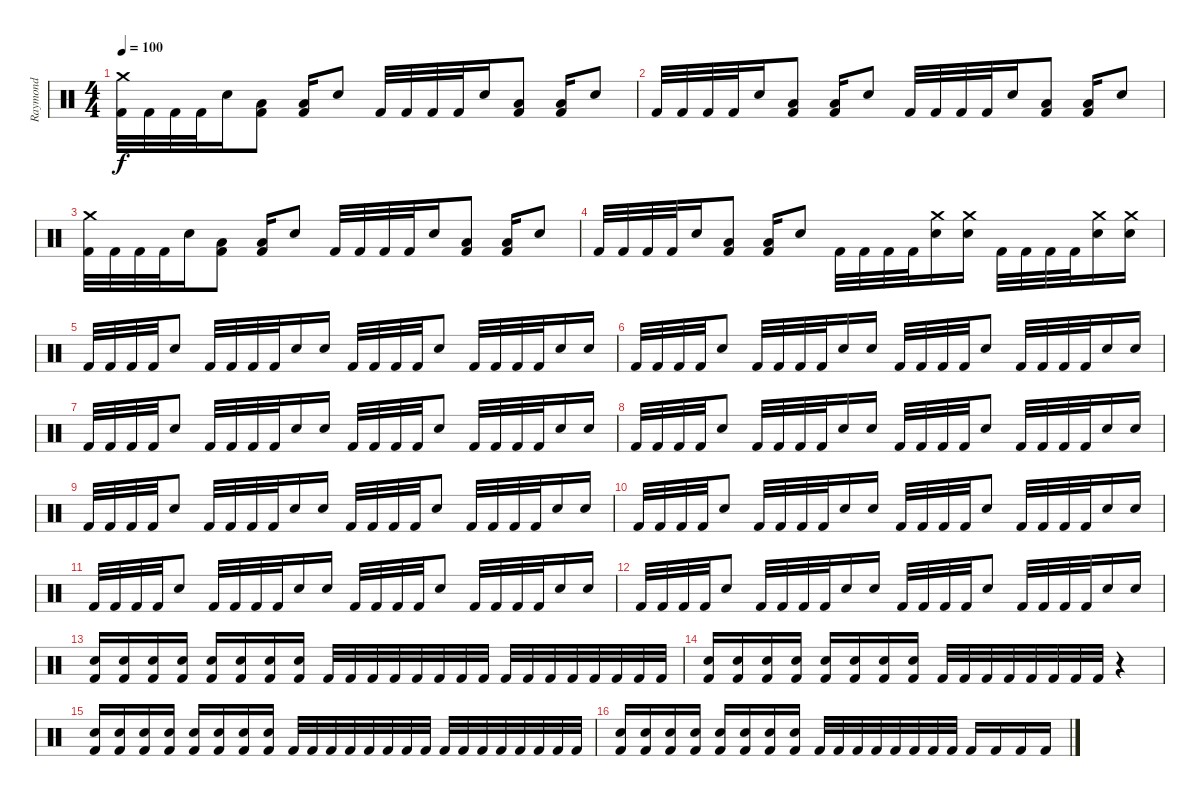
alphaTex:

\track ("Raymond" "Raymond") {instrument percussion}
\staff {score}
\articulation defaults
\ts (4 4)
\tempo 100
\clef neutral
\ks c
("Crash medium (hit)" "Kick (hit) 2").32{dy f} "Kick (hit) 2".32 "Kick (hit) 2".32 "Kick (hit) 2".32 "Snare (hit) 2".16 ("Low Floor Tom (hit)" "Kick (hit) 2").8 ("Low Floor Tom (hit)" "Kick (hit) 2").16 "Snare (hit) 2".8 "Kick (hit) 2".32 "Kick (hit) 2".32 "Kick (hit) 2".32 "Kick (hit) 2".32 "Snare (hit) 2".16 ("Low Floor Tom (hit)" "Kick (hit) 2").8 ("Low Floor Tom (hit)" "Kick (hit) 2").16 "Snare (hit) 2".8 |
"Kick (hit) 2".32 "Kick (hit) 2".32 "Kick (hit) 2".32 "Kick (hit) 2".32 "Snare (hit) 2".16 ("Low Floor Tom (hit)" "Kick (hit) 2").8 ("Low Floor Tom (hit)" "Kick (hit) 2").16 "Snare (hit) 2".8 "Kick (hit) 2".32 "Kick (hit) 2".32 "Kick (hit) 2".32 "Kick (hit) 2".32 "Snare (hit) 2".16 ("Low Floor Tom (hit)" "Kick (hit) 2").8 ("Low Floor Tom (hit)" "Kick (hit) 2").16 "Snare (hit) 2".8 |
("Crash medium (hit)" "Kick (hit) 2").32 "Kick (hit) 2".32 "Kick (hit) 2".32 "Kick (hit) 2".32 "Snare (hit) 2".16 ("Low Floor Tom (hit)" "Kick (hit) 2").8 ("Low Floor Tom (hit)" "Kick (hit) 2").16 "Snare (hit) 2".8 "Kick (hit) 2".32 "Kick (hit) 2".32 "Kick (hit) 2".32 "Kick (hit) 2".32 "Snare (hit) 2".16 ("Low Floor Tom (hit)" "Kick (hit) 2").8 ("Low Floor Tom (hit)" "Kick (hit) 2").16 "Snare (hit) 2".8 |
"Kick (hit) 2".32 "Kick (hit) 2".32 "Kick (hit) 2".32 "Kick (hit) 2".32 "Snare (hit) 2".16 ("Low Floor Tom (hit)" "Kick (hit) 2").8 ("Low Floor Tom (hit)" "Kick (hit) 2").16 "Snare (hit) 2".8 "Kick (hit) 2".32 "Kick (hit) 2".32 "Kick (hit) 2".32 "Kick (hit) 2".32 ("Crash medium (hit)" "Snare (hit) 2").16 ("Crash medium (hit)" "Snare (hit) 2").16 "Kick (hit) 2".32 "Kick (hit) 2".32 "Kick (hit) 2".32 "Kick (hit) 2".32 ("Crash medium (hit)" "Snare (hit) 2").16 ("Crash medium (hit)" "Snare (hit) 2").16 |
"Kick (hit) 2".32 "Kick (hit) 2".32 "Kick (hit) 2".32 "Kick (hit) 2".32 "Snare (hit) 2".8 "Kick (hit) 2".32 "Kick (hit) 2".32 "Kick (hit) 2".32 "Kick (hit) 2".32 "Snare (hit) 2".16 "Snare (hit) 2".16 "Kick (hit) 2".32 "Kick (hit) 2".32 "Kick (hit) 2".32 "Kick (hit) 2".32 "Snare (hit) 2".8 "Kick (hit) 2".32 "Kick (hit) 2".32 "Kick (hit) 2".32 "Kick (hit) 2".32 "Snare (hit) 2".16 "Snare (hit) 2".16 |
"Kick (hit) 2".32 "Kick (hit) 2".32 "Kick (hit) 2".32 "Kick (hit) 2".32 "Snare (hit) 2".8 "Kick (hit) 2".32 "Kick (hit) 2".32 "Kick (hit) 2".32 "Kick (hit) 2".32 "Snare (hit) 2".16 "Snare (hit) 2".16 "Kick (hit) 2".32 "Kick (hit) 2".32 "Kick (hit) 2".32 "Kick (hit) 2".32 "Snare (hit) 2".8 "Kick (hit) 2".32 "Kick (hit) 2".32 "Kick (hit) 2".32 "Kick (hit) 2".32 "Snare (hit) 2".16 "Snare (hit) 2".16 |
"Kick (hit) 2".32 "Kick (hit) 2".32 "Kick (hit) 2".32 "Kick (hit) 2".32 "Snare (hit) 2".8 "Kick (hit) 2".32 "Kick (hit) 2".32 "Kick (hit) 2".32 "Kick (hit) 2".32 "Snare (hit) 2".16 "Snare (hit) 2".16 "Kick (hit) 2".32 "Kick (hit) 2".32 "Kick (hit) 2".32 "Kick (hit) 2".32 "Snare (hit) 2".8 "Kick (hit) 2".32 "Kick (hit) 2".32 "Kick (hit) 2".32 "Kick (hit) 2".32 "Snare (hit) 2".16 "Snare (hit) 2".16 |
"Kick (hit) 2".32 "Kick (hit) 2".32 "Kick (hit) 2".32 "Kick (hit) 2".32 "Snare (hit) 2".8 "Kick (hit) 2".32 "Kick (hit) 2".32 "Kick (hit) 2".32 "Kick (hit) 2".32 "Snare (hit) 2".16 "Snare (hit) 2".16 "Kick (hit) 2".32 "Kick (hit) 2".32 "Kick (hit) 2".32 "Kick (hit) 2".32 "Snare (hit) 2".8 "Kick (hit) 2".32 "Kick (hit) 2".32 "Kick (hit) 2".32 "Kick (hit) 2".32 "Snare (hit) 2".16 "Snare (hit) 2".16 |
"Kick (hit) 2".32 "Kick (hit) 2".32 "Kick (hit) 2".32 "Kick (hit) 2".32 "Snare (hit) 2".8 "Kick (hit) 2".32 "Kick (hit) 2".32 "Kick (hit) 2".32 "Kick (hit) 2".32 "Snare (hit) 2".16 "Snare (hit) 2".16 "Kick (hit) 2".32 "Kick (hit) 2".32 "Kick (hit) 2".32 "Kick (hit) 2".32 "Snare (hit) 2".8 "Kick (hit) 2".32 "Kick (hit) 2".32 "Kick (hit) 2".32 "Kick (hit) 2".32 "Snare (hit) 2".16 "Snare (hit) 2".16 |
"Kick (hit) 2".32 "Kick (hit) 2".32 "Kick (hit) 2".32 "Kick (hit) 2".32 "Snare (hit) 2".8 "Kick (hit) 2".32 "Kick (hit) 2".32 "Kick (hit) 2".32 "Kick (hit) 2".32 "Snare (hit) 2".16 "Snare (hit) 2".16 "Kick (hit) 2".32 "Kick (hit) 2".32 "Kick (hit) 2".32 "Kick (hit) 2".32 "Snare (hit) 2".8 "Kick (hit) 2".32 "Kick (hit) 2".32 "Kick (hit) 2".32 "Kick (hit) 2".32 "Snare (hit) 2".16 "Snare (hit) 2".16 |
"Kick (hit) 2".32 "Kick (hit) 2".32 "Kick (hit) 2".32 "Kick (hit) 2".32 "Snare (hit) 2".8 "Kick (hit) 2".32 "Kick (hit) 2".32 "Kick (hit) 2".32 "Kick (hit) 2".32 "Snare (hit) 2".16 "Snare (hit) 2".16 "Kick (hit) 2".32 "Kick (hit) 2".32 "Kick (hit) 2".32 "Kick (hit) 2".32 "Snare (hit) 2".8 "Kick (hit) 2".32 "Kick (hit) 2".32 "Kick (hit) 2".32 "Kick (hit) 2".32 "Snare (hit) 2".16 "Snare (hit) 2".16 |
"Kick (hit) 2".32 "Kick (hit) 2".32 "Kick (hit) 2".32 "Kick (hit) 2".32 "Snare (hit) 2".8 "Kick (hit) 2".32 "Kick (hit) 2".32 "Kick (hit) 2".32 "Kick (hit) 2".32 "Snare (hit) 2".16 "Snare (hit) 2".16 "Kick (hit) 2".32 "Kick (hit) 2".32 "Kick (hit) 2".32 "Kick (hit) 2".32 "Snare (hit) 2".8 "Kick (hit) 2".32 "Kick (hit) 2".32 "Kick (hit) 2".32 "Kick (hit) 2".32 "Snare (hit) 2".16 "Snare (hit) 2".16 |
("Snare (hit) 2" "Kick (hit) 2").16 ("Snare (hit) 2" "Kick (hit) 2").16 ("Snare (hit) 2" "Kick (hit) 2").16 ("Snare (hit) 2" "Kick (hit) 2").16 ("Snare (hit) 2" "Kick (hit) 2").16 ("Snare (hit) 2" "Kick (hit) 2").16 ("Snare (hit) 2" "Kick (hit) 2").16 ("Snare (hit) 2" "Kick (hit) 2").16 "Kick (hit) 2".32 "Kick (hit) 2".32 "Kick (hit) 2".32 "Kick (hit) 2".32 "Kick (hit) 2".32 "Kick (hit) 2".32 "Kick (hit) 2".32 "Kick (hit) 2".32 "Kick (hit) 2".32 "Kick (hit) 2".32 "Kick (hit) 2".32 "Kick (hit) 2".32 "Kick (hit) 2".32 "Kick (hit) 2".32 "Kick (hit) 2".32 "Kick (hit) 2".32 |
("Snare (hit) 2" "Kick (hit) 2").16 ("Snare (hit) 2" "Kick (hit) 2").16 ("Snare (hit) 2" "Kick (hit) 2").16 ("Snare (hit) 2" "Kick (hit) 2").16 ("Snare (hit) 2" "Kick (hit) 2").16 ("Snare (hit) 2" "Kick (hit) 2").16 ("Snare (hit) 2" "Kick (hit) 2").16 ("Snare (hit) 2" "Kick (hit) 2").16 "Kick (hit) 2".32 "Kick (hit) 2".32 "Kick (hit) 2".32 "Kick (hit) 2".32 "Kick (hit) 2".32 "Kick (hit) 2".32 "Kick (hit) 2".32 "Kick (hit) 2".32 r.4 |
("Snare (hit) 2" "Kick (hit) 2").16 ("Snare (hit) 2" "Kick (hit) 2").16 ("Snare (hit) 2" "Kick (hit) 2").16 ("Snare (hit) 2" "Kick (hit) 2").16 ("Snare (hit) 2" "Kick (hit) 2").16 ("Snare (hit) 2" "Kick (hit) 2").16 ("Snare (hit) 2" "Kick (hit) 2").16 ("Snare (hit) 2" "Kick (hit) 2").16 "Kick (hit) 2".32 "Kick (hit) 2".32 "Kick (hit) 2".32 "Kick (hit) 2".32 "Kick (hit) 2".32 "Kick (hit) 2".32 "Kick (hit) 2".32 "Kick (hit) 2".32 "Kick (hit) 2".32 "Kick (hit) 2".32 "Kick (hit) 2".32 "Kick (hit) 2".32 "Kick (hit) 2".32 "Kick (hit) 2".32 "Kick (hit) 2".32 "Kick (hit) 2".32 |
("Snare (hit) 2" "Kick (hit) 2").16 ("Snare (hit) 2" "Kick (hit) 2").16 ("Snare (hit) 2" "Kick (hit) 2").16 ("Snare (hit) 2" "Kick (hit) 2").16 ("Snare (hit) 2" "Kick (hit) 2").16 ("Snare (hit) 2" "Kick (hit) 2").16 ("Snare (hit) 2" "Kick (hit) 2").16 ("Snare (hit) 2" "Kick (hit) 2").16 "Kick (hit) 2".32 "Kick (hit) 2".32 "Kick (hit) 2".32 "Kick (hit) 2".32 "Kick (hit) 2".32 "Kick (hit) 2".32 "Kick (hit) 2".32 "Kick (hit) 2".32 "Kick (hit) 2".16 "Kick (hit) 2".16 "Kick (hit) 2".16 "Kick (hit) 2".16
